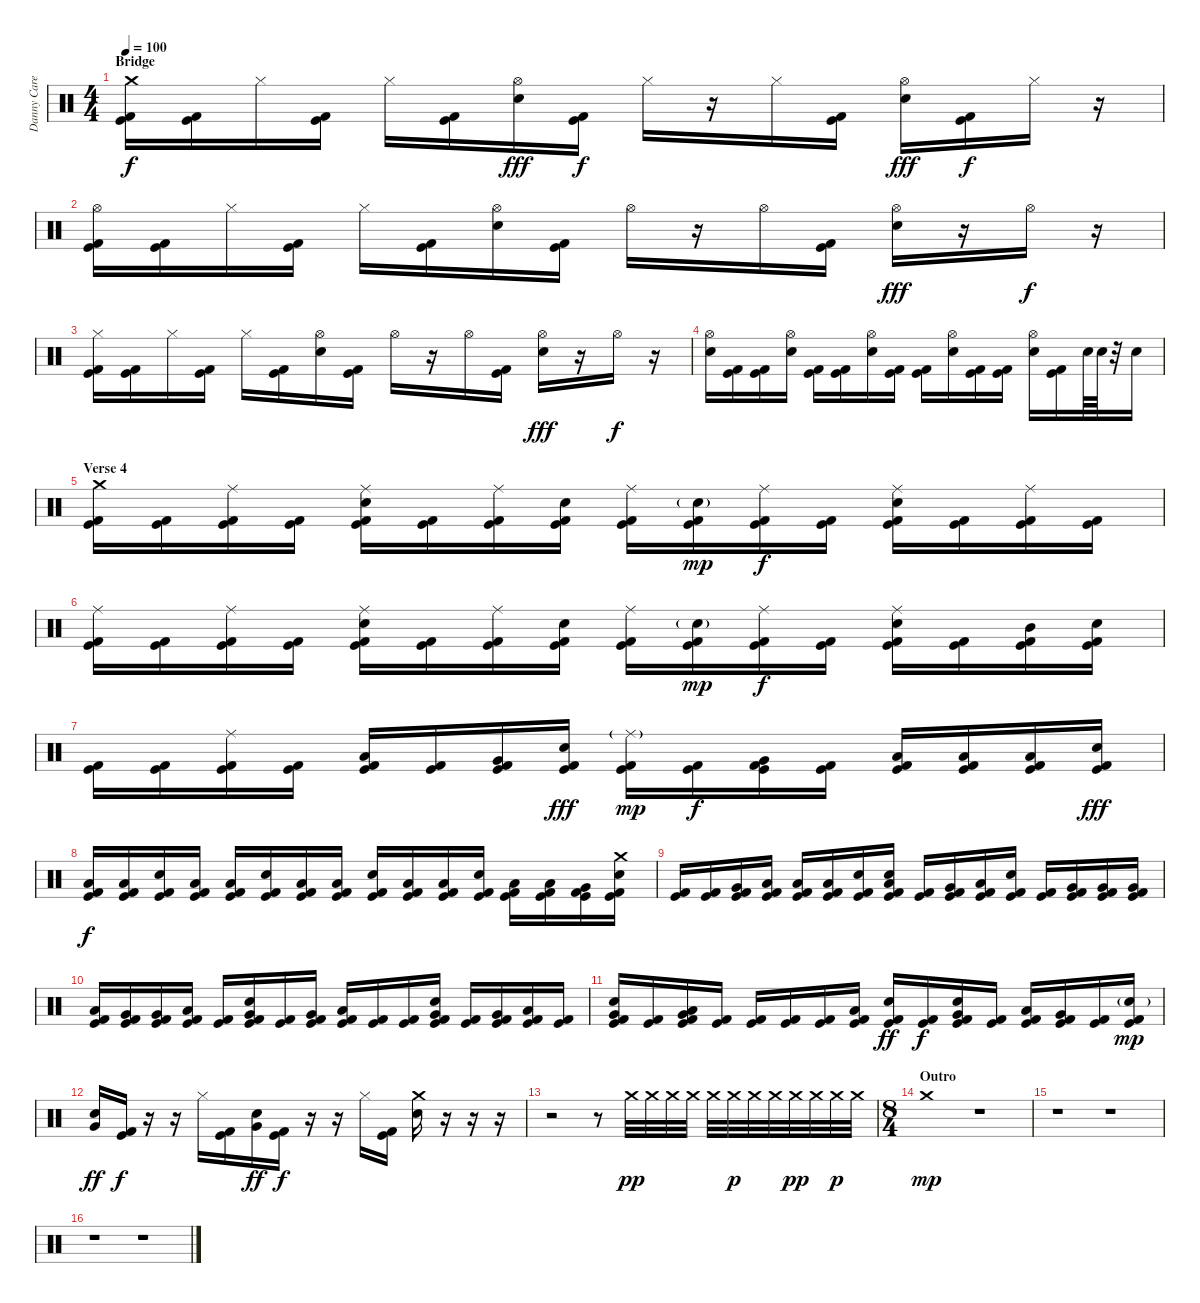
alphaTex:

\track ("Danny Carey - Percussion" "Danny Care") {instrument percussion}
\staff {score}
\articulation defaults
\ts (4 4)
\section ("" "Bridge")
\tempo 100
\clef neutral
\ks c
("Crash medium (hit)" "Kick (hit)" "Kick (hit) 2").16{dy f} ("Kick (hit)" "Kick (hit) 2").16 "Hi-Hat (closed)".16 ("Kick (hit)" "Kick (hit) 2").16 "Hi-Hat (closed)".16 ("Kick (hit)" "Kick (hit) 2").16 ("Hi-Hat (open)" "Electric Snare (hit)").16{dy fff} ("Kick (hit)" "Kick (hit) 2").16{dy f} "Hi-Hat (closed)".16 r.16 "Hi-Hat (closed)".16 ("Kick (hit)" "Kick (hit) 2").16 ("Hi-Hat (open)" "Electric Snare (hit)").16{dy fff} ("Kick (hit)" "Kick (hit) 2").16{dy f} "Hi-Hat (closed)".16 r.16 |
("Hi-Hat (open)" "Kick (hit)" "Kick (hit) 2").16 ("Kick (hit)" "Kick (hit) 2").16 "Hi-Hat (closed)".16 ("Kick (hit)" "Kick (hit) 2").16 "Hi-Hat (closed)".16 ("Kick (hit)" "Kick (hit) 2").16 ("Hi-Hat (open)" "Electric Snare (hit)").16 ("Kick (hit)" "Kick (hit) 2").16 "Hi-Hat (open)".16 r.16 "Hi-Hat (open)".16 ("Kick (hit)" "Kick (hit) 2").16 ("Hi-Hat (open)" "Electric Snare (hit)").16{dy fff} r.16 "Hi-Hat (open)".16{dy f} r.16 |
("Hi-Hat (closed)" "Kick (hit)" "Kick (hit) 2").16 ("Kick (hit)" "Kick (hit) 2").16 "Hi-Hat (closed)".16 ("Kick (hit)" "Kick (hit) 2").16 "Hi-Hat (closed)".16 ("Kick (hit)" "Kick (hit) 2").16 ("Hi-Hat (open)" "Electric Snare (hit)").16 ("Kick (hit)" "Kick (hit) 2").16 "Hi-Hat (open)".16 r.16 "Hi-Hat (open)".16 ("Kick (hit)" "Kick (hit) 2").16 ("Hi-Hat (open)" "Electric Snare (hit)").16{dy fff} r.16 "Hi-Hat (open)".16{dy f} r.16 |
("Hi-Hat (open)" "Electric Snare (hit)").16 ("Kick (hit)" "Kick (hit) 2").16 ("Kick (hit)" "Kick (hit) 2").16 ("Hi-Hat (open)" "Electric Snare (hit)").16 ("Kick (hit)" "Kick (hit) 2").16 ("Kick (hit)" "Kick (hit) 2").16 ("Hi-Hat (open)" "Electric Snare (hit)").16 ("Kick (hit)" "Kick (hit) 2").16 ("Kick (hit)" "Kick (hit) 2").16 ("Hi-Hat (open)" "Electric Snare (hit)").16 ("Kick (hit)" "Kick (hit) 2").16 ("Kick (hit)" "Kick (hit) 2").16 ("Hi-Hat (open)" "Electric Snare (hit)").16 ("Kick (hit)" "Kick (hit) 2").16 "Electric Snare (hit)".64 "Electric Snare (hit)".64 r.32 "Electric Snare (hit)".16 |
\section ("" "Verse 4")
("Crash medium (hit)" "Kick (hit)" "Kick (hit) 2").16 ("Kick (hit)" "Kick (hit) 2").16 ("Ride (middle)" "Kick (hit)" "Kick (hit) 2").16 ("Kick (hit)" "Kick (hit) 2").16 ("Ride (middle)" "Electric Snare (hit)" "Kick (hit)" "Kick (hit) 2").16 ("Kick (hit)" "Kick (hit) 2").16 ("Ride (middle)" "Kick (hit)" "Kick (hit) 2").16 ("Electric Snare (hit)" "Kick (hit)" "Kick (hit) 2").16 ("Ride (middle)" "Kick (hit)" "Kick (hit) 2").16 ("Electric Snare (hit)"{g} "Kick (hit)" "Kick (hit) 2").16{dy mp} ("Ride (middle)" "Kick (hit)" "Kick (hit) 2").16{dy f} ("Kick (hit)" "Kick (hit) 2").16 ("Ride (middle)" "Electric Snare (hit)" "Kick (hit)" "Kick (hit) 2").16 ("Kick (hit)" "Kick (hit) 2").16 ("Ride (middle)" "Kick (hit)" "Kick (hit) 2").16 ("Kick (hit)" "Kick (hit) 2").16 |
("Ride (middle)" "Kick (hit)" "Kick (hit) 2").16 ("Kick (hit)" "Kick (hit) 2").16 ("Ride (middle)" "Kick (hit)" "Kick (hit) 2").16 ("Kick (hit)" "Kick (hit) 2").16 ("Ride (middle)" "Electric Snare (hit)" "Kick (hit)" "Kick (hit) 2").16 ("Kick (hit)" "Kick (hit) 2").16 ("Ride (middle)" "Kick (hit)" "Kick (hit) 2").16 ("Electric Snare (hit)" "Kick (hit)" "Kick (hit) 2").16 ("Ride (middle)" "Kick (hit)" "Kick (hit) 2").16 ("Electric Snare (hit)"{g} "Kick (hit)" "Kick (hit) 2").16{dy mp} ("Ride (middle)" "Kick (hit)" "Kick (hit) 2").16{dy f} ("Kick (hit)" "Kick (hit) 2").16 ("Ride (middle)" "Electric Snare (hit)" "Kick (hit)" "Kick (hit) 2").16 ("Kick (hit)" "Kick (hit) 2").16 ("Mid Tom (hit)" "Kick (hit)" "Kick (hit) 2").16 ("Electric Snare (hit)" "Kick (hit)" "Kick (hit) 2").16 |
("Kick (hit)" "Kick (hit) 2").16 ("Kick (hit)" "Kick (hit) 2").16 ("Ride (middle)" "Kick (hit)" "Kick (hit) 2").16 ("Kick (hit)" "Kick (hit) 2").16 ("Low Tom (hit)" "Kick (hit)" "Kick (hit) 2").16 ("Kick (hit)" "Kick (hit) 2").16 ("Very Low Tom (hit)" "Kick (hit)" "Kick (hit) 2").16 ("Electric Snare (hit)" "Kick (hit)" "Kick (hit) 2").16{dy fff} ("Ride (middle)"{g} "Kick (hit)" "Kick (hit) 2").16{dy mp} ("Kick (hit)" "Kick (hit) 2").16{dy f} ("Very Low Tom (hit)" "Kick (hit)" "Kick (hit) 2").16 ("Kick (hit)" "Kick (hit) 2").16 ("Low Floor Tom (hit)" "Kick (hit)" "Kick (hit) 2").16 ("Low Floor Tom (hit)" "Kick (hit)" "Kick (hit) 2").16 ("Low Floor Tom (hit)" "Kick (hit)" "Kick (hit) 2").16 ("Electric Snare (hit)" "Kick (hit)" "Kick (hit) 2").16{dy fff} |
("Low Floor Tom (hit)" "Kick (hit)" "Kick (hit) 2").16{dy f} ("Low Floor Tom (hit)" "Kick (hit)" "Kick (hit) 2").16 ("Electric Snare (hit)" "Kick (hit)" "Kick (hit) 2").16 ("Low Floor Tom (hit)" "Kick (hit)" "Kick (hit) 2").16 ("Low Floor Tom (hit)" "Kick (hit)" "Kick (hit) 2").16 ("Electric Snare (hit)" "Kick (hit)" "Kick (hit) 2").16 ("Low Floor Tom (hit)" "Kick (hit)" "Kick (hit) 2").16 ("Low Floor Tom (hit)" "Kick (hit)" "Kick (hit) 2").16 ("Electric Snare (hit)" "Kick (hit)" "Kick (hit) 2").16 ("Low Floor Tom (hit)" "Kick (hit)" "Kick (hit) 2").16 ("Low Floor Tom (hit)" "Kick (hit)" "Kick (hit) 2").16 ("Electric Snare (hit)" "Kick (hit)" "Kick (hit) 2").16 ("Low Floor Tom (hit)" "Kick (hit)" "Kick (hit) 2").16 ("Low Floor Tom (hit)" "Kick (hit)" "Kick (hit) 2").16 ("Very Low Tom (hit)" "Kick (hit)" "Kick (hit) 2").16 ("Crash medium (hit)" "Electric Snare (hit)" "Kick (hit)" "Kick (hit) 2").16 |
("Kick (hit)" "Kick (hit) 2").16 ("Kick (hit)" "Kick (hit) 2").16 ("Very Low Tom (hit)" "Kick (hit)" "Kick (hit) 2").16 ("Low Floor Tom (hit)" "Kick (hit)" "Kick (hit) 2").16 ("Low Tom (hit)" "Kick (hit)" "Kick (hit) 2").16 ("Low Floor Tom (hit)" "Kick (hit)" "Kick (hit) 2").16 ("Electric Snare (hit)" "Kick (hit)" "Kick (hit) 2").16 ("Low Floor Tom (hit)" "Electric Snare (hit)" "Kick (hit)" "Kick (hit) 2").16 ("Kick (hit)" "Kick (hit) 2").16 ("Very Low Tom (hit)" "Kick (hit)" "Kick (hit) 2").16 ("Low Floor Tom (hit)" "Kick (hit)" "Kick (hit) 2").16 ("Electric Snare (hit)" "Kick (hit)" "Kick (hit) 2").16 ("Kick (hit)" "Kick (hit) 2").16 ("Very Low Tom (hit)" "Kick (hit)" "Kick (hit) 2").16 ("Very Low Tom (hit)" "Kick (hit)" "Kick (hit) 2").16 ("Very Low Tom (hit)" "Kick (hit)" "Kick (hit) 2").16 |
("Low Tom (hit)" "Kick (hit)" "Kick (hit) 2").16 ("Very Low Tom (hit)" "Kick (hit)" "Kick (hit) 2").16 ("Very Low Tom (hit)" "Kick (hit)" "Kick (hit) 2").16 ("Low Floor Tom (hit)" "Kick (hit)" "Kick (hit) 2").16 ("Kick (hit)" "Kick (hit) 2").16 ("Very Low Tom (hit)" "Electric Snare (hit)" "Kick (hit)" "Kick (hit) 2").16 ("Kick (hit)" "Kick (hit) 2").16 ("Very Low Tom (hit)" "Kick (hit)" "Kick (hit) 2").16 ("Low Tom (hit)" "Kick (hit)" "Kick (hit) 2").16 ("Kick (hit)" "Kick (hit) 2").16 ("Kick (hit)" "Kick (hit) 2").16 ("Very Low Tom (hit)" "Electric Snare (hit)" "Kick (hit)" "Kick (hit) 2").16 ("Kick (hit)" "Kick (hit) 2").16 ("Very Low Tom (hit)" "Kick (hit)" "Kick (hit) 2").16 ("Low Tom (hit)" "Kick (hit)" "Kick (hit) 2").16 ("Kick (hit)" "Kick (hit) 2").16 |
("Very Low Tom (hit)" "Electric Snare (hit)" "Kick (hit)" "Kick (hit) 2").16 ("Kick (hit)" "Kick (hit) 2").16 ("Low Floor Tom (hit)" "Very Low Tom (hit)" "Kick (hit)" "Kick (hit) 2").16 ("Kick (hit)" "Kick (hit) 2").16 ("Kick (hit)" "Kick (hit) 2").16 ("Kick (hit)" "Kick (hit) 2").16 ("Kick (hit)" "Kick (hit) 2").16 ("Low Floor Tom (hit)" "Kick (hit)" "Kick (hit) 2").16 ("Electric Snare (hit)" "Kick (hit)" "Kick (hit) 2").16{dy ff} ("Kick (hit)" "Kick (hit) 2").16{dy f} ("Very Low Tom (hit)" "Electric Snare (hit)" "Kick (hit)" "Kick (hit) 2").16 ("Kick (hit)" "Kick (hit) 2").16 ("Low Floor Tom (hit)" "Kick (hit)" "Kick (hit) 2").16 ("Very Low Tom (hit)" "Kick (hit)" "Kick (hit) 2").16 ("Kick (hit)" "Kick (hit) 2").16 ("Electric Snare (hit)"{g} "Kick (hit)" "Kick (hit) 2").16{dy mp} |
("Very Low Tom (hit)" "Electric Snare (hit)").16{dy ff} ("Kick (hit)" "Kick (hit) 2").16{dy f} r.16 r.16 "Hi-Hat (closed)".16 ("Kick (hit)" "Kick (hit) 2").16 ("Very Low Tom (hit)" "Electric Snare (hit)").16{dy ff} ("Kick (hit)" "Kick (hit) 2").16{dy f} r.16 r.16 "Hi-Hat (closed)".16 ("Kick (hit)" "Kick (hit) 2").16 ("Crash medium (hit)" "Electric Snare (hit)").16 r.16 r.16 r.16 |
r.2 r.8 "Crash medium (hit)".32{dy pp} "Crash medium (hit)".32 "Crash medium (hit)".32 "Crash medium (hit)".32 "Crash medium (hit)".32 "Crash medium (hit)".32{dy p} "Crash medium (hit)".32 "Crash medium (hit)".32 "Crash medium (hit)".32{dy pp} "Crash medium (hit)".32 "Crash medium (hit)".32{dy p} "Crash medium (hit)".32 |
\ts (8 4)
\section ("" "Outro")
"Crash medium (hit)".1{dy mp} r.1 |
r.1 r.1 |
r.1 r.1
